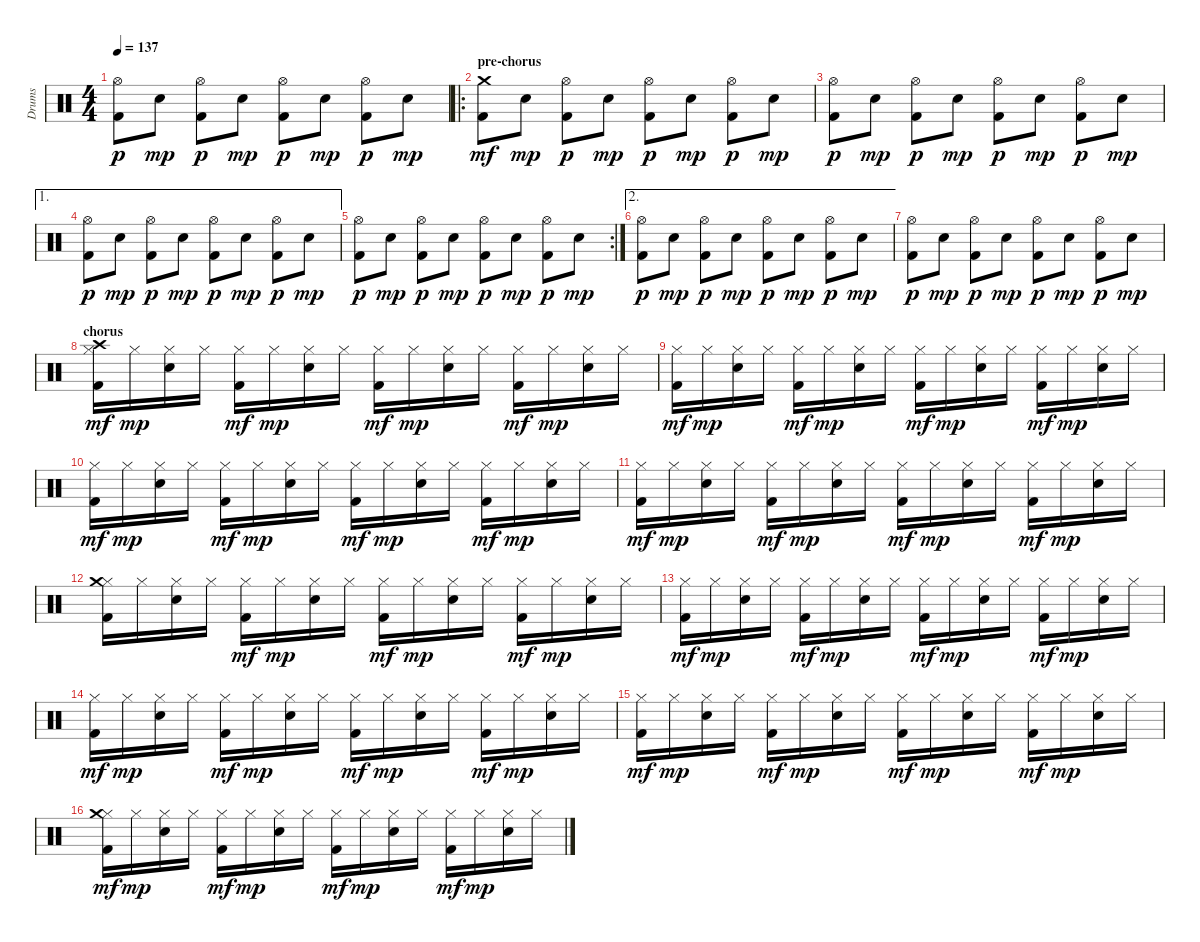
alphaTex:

\track ("Drums" "Drums") {instrument percussion}
\staff {score}
\articulation defaults
\ts (4 4)
\tempo 137
\clef neutral
\ks c
("Hi-Hat (open)" "Kick (hit) 2").8{dy p} "Snare (hit) 2".8{dy mp} ("Hi-Hat (open)" "Kick (hit) 2").8{dy p} "Snare (hit) 2".8{dy mp} ("Hi-Hat (open)" "Kick (hit) 2").8{dy p} "Snare (hit) 2".8{dy mp} ("Hi-Hat (open)" "Kick (hit) 2").8{dy p} "Snare (hit) 2".8{dy mp} |
\ro
\section ("" "pre-chorus")
("Crash medium (hit)" "Kick (hit) 2").8{dy mf} "Snare (hit) 2".8{dy mp} ("Hi-Hat (open)" "Kick (hit) 2").8{dy p} "Snare (hit) 2".8{dy mp} ("Hi-Hat (open)" "Kick (hit) 2").8{dy p} "Snare (hit) 2".8{dy mp} ("Hi-Hat (open)" "Kick (hit) 2").8{dy p} "Snare (hit) 2".8{dy mp} |
("Hi-Hat (open)" "Kick (hit) 2").8{dy p} "Snare (hit) 2".8{dy mp} ("Hi-Hat (open)" "Kick (hit) 2").8{dy p} "Snare (hit) 2".8{dy mp} ("Hi-Hat (open)" "Kick (hit) 2").8{dy p} "Snare (hit) 2".8{dy mp} ("Hi-Hat (open)" "Kick (hit) 2").8{dy p} "Snare (hit) 2".8{dy mp} |
\ae 1
("Hi-Hat (open)" "Kick (hit) 2").8{dy p} "Snare (hit) 2".8{dy mp} ("Hi-Hat (open)" "Kick (hit) 2").8{dy p} "Snare (hit) 2".8{dy mp} ("Hi-Hat (open)" "Kick (hit) 2").8{dy p} "Snare (hit) 2".8{dy mp} ("Hi-Hat (open)" "Kick (hit) 2").8{dy p} "Snare (hit) 2".8{dy mp} |
\rc 2
("Hi-Hat (open)" "Kick (hit) 2").8{dy p} "Snare (hit) 2".8{dy mp} ("Hi-Hat (open)" "Kick (hit) 2").8{dy p} "Snare (hit) 2".8{dy mp} ("Hi-Hat (open)" "Kick (hit) 2").8{dy p} "Snare (hit) 2".8{dy mp} ("Hi-Hat (open)" "Kick (hit) 2").8{dy p} "Snare (hit) 2".8{dy mp} |
\ae 2
("Hi-Hat (open)" "Kick (hit) 2").8{dy p} "Snare (hit) 2".8{dy mp} ("Hi-Hat (open)" "Kick (hit) 2").8{dy p} "Snare (hit) 2".8{dy mp} ("Hi-Hat (open)" "Kick (hit) 2").8{dy p} "Snare (hit) 2".8{dy mp} ("Hi-Hat (open)" "Kick (hit) 2").8{dy p} "Snare (hit) 2".8{dy mp} |
("Hi-Hat (open)" "Kick (hit) 2").8{dy p} "Snare (hit) 2".8{dy mp} ("Hi-Hat (open)" "Kick (hit) 2").8{dy p} "Snare (hit) 2".8{dy mp} ("Hi-Hat (open)" "Kick (hit) 2").8{dy p} "Snare (hit) 2".8{dy mp} ("Hi-Hat (open)" "Kick (hit) 2").8{dy p} "Snare (hit) 2".8{dy mp} |
\section ("" "chorus")
("Hi-Hat (closed)" "Crash high (hit)" "Kick (hit) 2").16{dy mf} "Hi-Hat (closed)".16{dy mp} ("Hi-Hat (closed)" "Snare (hit) 2").16 "Hi-Hat (closed)".16 ("Hi-Hat (closed)" "Kick (hit) 2").16{dy mf} "Hi-Hat (closed)".16{dy mp} ("Hi-Hat (closed)" "Snare (hit) 2").16 "Hi-Hat (closed)".16 ("Hi-Hat (closed)" "Kick (hit) 2").16{dy mf} "Hi-Hat (closed)".16{dy mp} ("Hi-Hat (closed)" "Snare (hit) 2").16 "Hi-Hat (closed)".16 ("Hi-Hat (closed)" "Kick (hit) 2").16{dy mf} "Hi-Hat (closed)".16{dy mp} ("Hi-Hat (closed)" "Snare (hit) 2").16 "Hi-Hat (closed)".16 |
("Hi-Hat (closed)" "Kick (hit) 2").16{dy mf} "Hi-Hat (closed)".16{dy mp} ("Hi-Hat (closed)" "Snare (hit) 2").16 "Hi-Hat (closed)".16 ("Hi-Hat (closed)" "Kick (hit) 2").16{dy mf} "Hi-Hat (closed)".16{dy mp} ("Hi-Hat (closed)" "Snare (hit) 2").16 "Hi-Hat (closed)".16 ("Hi-Hat (closed)" "Kick (hit) 2").16{dy mf} "Hi-Hat (closed)".16{dy mp} ("Hi-Hat (closed)" "Snare (hit) 2").16 "Hi-Hat (closed)".16 ("Hi-Hat (closed)" "Kick (hit) 2").16{dy mf} "Hi-Hat (closed)".16{dy mp} ("Hi-Hat (closed)" "Snare (hit) 2").16 "Hi-Hat (closed)".16 |
("Hi-Hat (closed)" "Kick (hit) 2").16{dy mf} "Hi-Hat (closed)".16{dy mp} ("Hi-Hat (closed)" "Snare (hit) 2").16 "Hi-Hat (closed)".16 ("Hi-Hat (closed)" "Kick (hit) 2").16{dy mf} "Hi-Hat (closed)".16{dy mp} ("Hi-Hat (closed)" "Snare (hit) 2").16 "Hi-Hat (closed)".16 ("Hi-Hat (closed)" "Kick (hit) 2").16{dy mf} "Hi-Hat (closed)".16{dy mp} ("Hi-Hat (closed)" "Snare (hit) 2").16 "Hi-Hat (closed)".16 ("Hi-Hat (closed)" "Kick (hit) 2").16{dy mf} "Hi-Hat (closed)".16{dy mp} ("Hi-Hat (closed)" "Snare (hit) 2").16 "Hi-Hat (closed)".16 |
("Hi-Hat (closed)" "Kick (hit) 2").16{dy mf} "Hi-Hat (closed)".16{dy mp} ("Hi-Hat (closed)" "Snare (hit) 2").16 "Hi-Hat (closed)".16 ("Hi-Hat (closed)" "Kick (hit) 2").16{dy mf} "Hi-Hat (closed)".16{dy mp} ("Hi-Hat (closed)" "Snare (hit) 2").16 "Hi-Hat (closed)".16 ("Hi-Hat (closed)" "Kick (hit) 2").16{dy mf} "Hi-Hat (closed)".16{dy mp} ("Hi-Hat (closed)" "Snare (hit) 2").16 "Hi-Hat (closed)".16 ("Hi-Hat (closed)" "Kick (hit) 2").16{dy mf} "Hi-Hat (closed)".16{dy mp} ("Hi-Hat (closed)" "Snare (hit) 2").16 "Hi-Hat (closed)".16 |
("Hi-Hat (closed)" "Crash medium (hit)" "Kick (hit) 2").16 "Hi-Hat (closed)".16 ("Hi-Hat (closed)" "Snare (hit) 2").16 "Hi-Hat (closed)".16 ("Hi-Hat (closed)" "Kick (hit) 2").16{dy mf} "Hi-Hat (closed)".16{dy mp} ("Hi-Hat (closed)" "Snare (hit) 2").16 "Hi-Hat (closed)".16 ("Hi-Hat (closed)" "Kick (hit) 2").16{dy mf} "Hi-Hat (closed)".16{dy mp} ("Hi-Hat (closed)" "Snare (hit) 2").16 "Hi-Hat (closed)".16 ("Hi-Hat (closed)" "Kick (hit) 2").16{dy mf} "Hi-Hat (closed)".16{dy mp} ("Hi-Hat (closed)" "Snare (hit) 2").16 "Hi-Hat (closed)".16 |
("Hi-Hat (closed)" "Kick (hit) 2").16{dy mf} "Hi-Hat (closed)".16{dy mp} ("Hi-Hat (closed)" "Snare (hit) 2").16 "Hi-Hat (closed)".16 ("Hi-Hat (closed)" "Kick (hit) 2").16{dy mf} "Hi-Hat (closed)".16{dy mp} ("Hi-Hat (closed)" "Snare (hit) 2").16 "Hi-Hat (closed)".16 ("Hi-Hat (closed)" "Kick (hit) 2").16{dy mf} "Hi-Hat (closed)".16{dy mp} ("Hi-Hat (closed)" "Snare (hit) 2").16 "Hi-Hat (closed)".16 ("Hi-Hat (closed)" "Kick (hit) 2").16{dy mf} "Hi-Hat (closed)".16{dy mp} ("Hi-Hat (closed)" "Snare (hit) 2").16 "Hi-Hat (closed)".16 |
("Hi-Hat (closed)" "Kick (hit) 2").16{dy mf} "Hi-Hat (closed)".16{dy mp} ("Hi-Hat (closed)" "Snare (hit) 2").16 "Hi-Hat (closed)".16 ("Hi-Hat (closed)" "Kick (hit) 2").16{dy mf} "Hi-Hat (closed)".16{dy mp} ("Hi-Hat (closed)" "Snare (hit) 2").16 "Hi-Hat (closed)".16 ("Hi-Hat (closed)" "Kick (hit) 2").16{dy mf} "Hi-Hat (closed)".16{dy mp} ("Hi-Hat (closed)" "Snare (hit) 2").16 "Hi-Hat (closed)".16 ("Hi-Hat (closed)" "Kick (hit) 2").16{dy mf} "Hi-Hat (closed)".16{dy mp} ("Hi-Hat (closed)" "Snare (hit) 2").16 "Hi-Hat (closed)".16 |
("Hi-Hat (closed)" "Kick (hit) 2").16{dy mf} "Hi-Hat (closed)".16{dy mp} ("Hi-Hat (closed)" "Snare (hit) 2").16 "Hi-Hat (closed)".16 ("Hi-Hat (closed)" "Kick (hit) 2").16{dy mf} "Hi-Hat (closed)".16{dy mp} ("Hi-Hat (closed)" "Snare (hit) 2").16 "Hi-Hat (closed)".16 ("Hi-Hat (closed)" "Kick (hit) 2").16{dy mf} "Hi-Hat (closed)".16{dy mp} ("Hi-Hat (closed)" "Snare (hit) 2").16 "Hi-Hat (closed)".16 ("Hi-Hat (closed)" "Kick (hit) 2").16{dy mf} "Hi-Hat (closed)".16{dy mp} ("Hi-Hat (closed)" "Snare (hit) 2").16 "Hi-Hat (closed)".16 |
("Hi-Hat (closed)" "Crash medium (hit)" "Kick (hit) 2").16{dy mf} "Hi-Hat (closed)".16{dy mp} ("Hi-Hat (closed)" "Snare (hit) 2").16 "Hi-Hat (closed)".16 ("Hi-Hat (closed)" "Kick (hit) 2").16{dy mf} "Hi-Hat (closed)".16{dy mp} ("Hi-Hat (closed)" "Snare (hit) 2").16 "Hi-Hat (closed)".16 ("Hi-Hat (closed)" "Kick (hit) 2").16{dy mf} "Hi-Hat (closed)".16{dy mp} ("Hi-Hat (closed)" "Snare (hit) 2").16 "Hi-Hat (closed)".16 ("Hi-Hat (closed)" "Kick (hit) 2").16{dy mf} "Hi-Hat (closed)".16{dy mp} ("Hi-Hat (closed)" "Snare (hit) 2").16 "Hi-Hat (closed)".16
